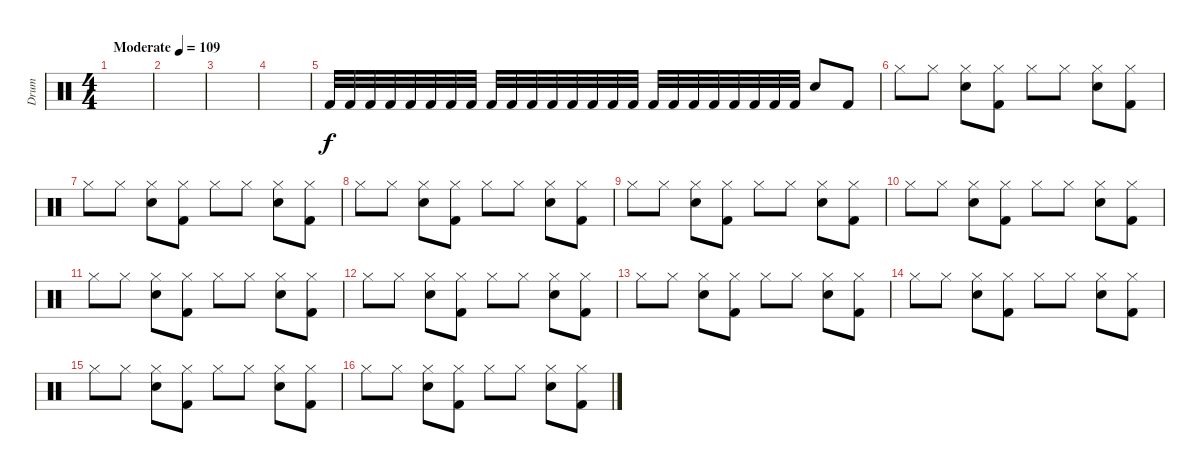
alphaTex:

\track ("Drum" "Drum") {instrument percussion}
\staff {score}
\articulation defaults
\ts (4 4)
\tempo (109 "Moderate")
\clef neutral
\ks c
|
|
|
|
"Kick (hit) 2".32 "Kick (hit) 2".32 "Kick (hit) 2".32 "Kick (hit) 2".32 "Kick (hit) 2".32 "Kick (hit) 2".32 "Kick (hit) 2".32 "Kick (hit) 2".32 "Kick (hit) 2".32 "Kick (hit) 2".32 "Kick (hit) 2".32 "Kick (hit) 2".32 "Kick (hit) 2".32 "Kick (hit) 2".32 "Kick (hit) 2".32 "Kick (hit) 2".32 "Kick (hit) 2".32 "Kick (hit) 2".32 "Kick (hit) 2".32 "Kick (hit) 2".32 "Kick (hit) 2".32 "Kick (hit) 2".32 "Kick (hit) 2".32 "Kick (hit) 2".32 "Electric Snare (hit)".8 "Kick (hit) 2".8 |
"Hi-Hat (closed)".8 "Hi-Hat (closed)".8 ("Electric Snare (hit)" "Hi-Hat (closed)").8 ("Kick (hit) 2" "Hi-Hat (closed)").8 "Hi-Hat (closed)".8 "Hi-Hat (closed)".8 ("Electric Snare (hit)" "Hi-Hat (closed)").8 ("Kick (hit) 2" "Hi-Hat (closed)").8 |
"Hi-Hat (closed)".8 "Hi-Hat (closed)".8 ("Electric Snare (hit)" "Hi-Hat (closed)").8 ("Kick (hit) 2" "Hi-Hat (closed)").8 "Hi-Hat (closed)".8 "Hi-Hat (closed)".8 ("Electric Snare (hit)" "Hi-Hat (closed)").8 ("Kick (hit) 2" "Hi-Hat (closed)").8 |
"Hi-Hat (closed)".8 "Hi-Hat (closed)".8 ("Electric Snare (hit)" "Hi-Hat (closed)").8 ("Kick (hit) 2" "Hi-Hat (closed)").8 "Hi-Hat (closed)".8 "Hi-Hat (closed)".8 ("Electric Snare (hit)" "Hi-Hat (closed)").8 ("Kick (hit) 2" "Hi-Hat (closed)").8 |
"Hi-Hat (closed)".8 "Hi-Hat (closed)".8 ("Electric Snare (hit)" "Hi-Hat (closed)").8 ("Kick (hit) 2" "Hi-Hat (closed)").8 "Hi-Hat (closed)".8 "Hi-Hat (closed)".8 ("Electric Snare (hit)" "Hi-Hat (closed)").8 ("Kick (hit) 2" "Hi-Hat (closed)").8 |
"Hi-Hat (closed)".8 "Hi-Hat (closed)".8 ("Electric Snare (hit)" "Hi-Hat (closed)").8 ("Kick (hit) 2" "Hi-Hat (closed)").8 "Hi-Hat (closed)".8 "Hi-Hat (closed)".8 ("Electric Snare (hit)" "Hi-Hat (closed)").8 ("Kick (hit) 2" "Hi-Hat (closed)").8 |
"Hi-Hat (closed)".8 "Hi-Hat (closed)".8 ("Electric Snare (hit)" "Hi-Hat (closed)").8 ("Kick (hit) 2" "Hi-Hat (closed)").8 "Hi-Hat (closed)".8 "Hi-Hat (closed)".8 ("Electric Snare (hit)" "Hi-Hat (closed)").8 ("Kick (hit) 2" "Hi-Hat (closed)").8 |
"Hi-Hat (closed)".8 "Hi-Hat (closed)".8 ("Electric Snare (hit)" "Hi-Hat (closed)").8 ("Kick (hit) 2" "Hi-Hat (closed)").8 "Hi-Hat (closed)".8 "Hi-Hat (closed)".8 ("Electric Snare (hit)" "Hi-Hat (closed)").8 ("Kick (hit) 2" "Hi-Hat (closed)").8 |
"Hi-Hat (closed)".8 "Hi-Hat (closed)".8 ("Electric Snare (hit)" "Hi-Hat (closed)").8 ("Kick (hit) 2" "Hi-Hat (closed)").8 "Hi-Hat (closed)".8 "Hi-Hat (closed)".8 ("Electric Snare (hit)" "Hi-Hat (closed)").8 ("Kick (hit) 2" "Hi-Hat (closed)").8 |
"Hi-Hat (closed)".8 "Hi-Hat (closed)".8 ("Electric Snare (hit)" "Hi-Hat (closed)").8 ("Kick (hit) 2" "Hi-Hat (closed)").8 "Hi-Hat (closed)".8 "Hi-Hat (closed)".8 ("Electric Snare (hit)" "Hi-Hat (closed)").8 ("Kick (hit) 2" "Hi-Hat (closed)").8 |
"Hi-Hat (closed)".8 "Hi-Hat (closed)".8 ("Electric Snare (hit)" "Hi-Hat (closed)").8 ("Kick (hit) 2" "Hi-Hat (closed)").8 "Hi-Hat (closed)".8 "Hi-Hat (closed)".8 ("Electric Snare (hit)" "Hi-Hat (closed)").8 ("Kick (hit) 2" "Hi-Hat (closed)").8 |
"Hi-Hat (closed)".8 "Hi-Hat (closed)".8 ("Electric Snare (hit)" "Hi-Hat (closed)").8 ("Kick (hit) 2" "Hi-Hat (closed)").8 "Hi-Hat (closed)".8 "Hi-Hat (closed)".8 ("Electric Snare (hit)" "Hi-Hat (closed)").8 ("Kick (hit) 2" "Hi-Hat (closed)").8
